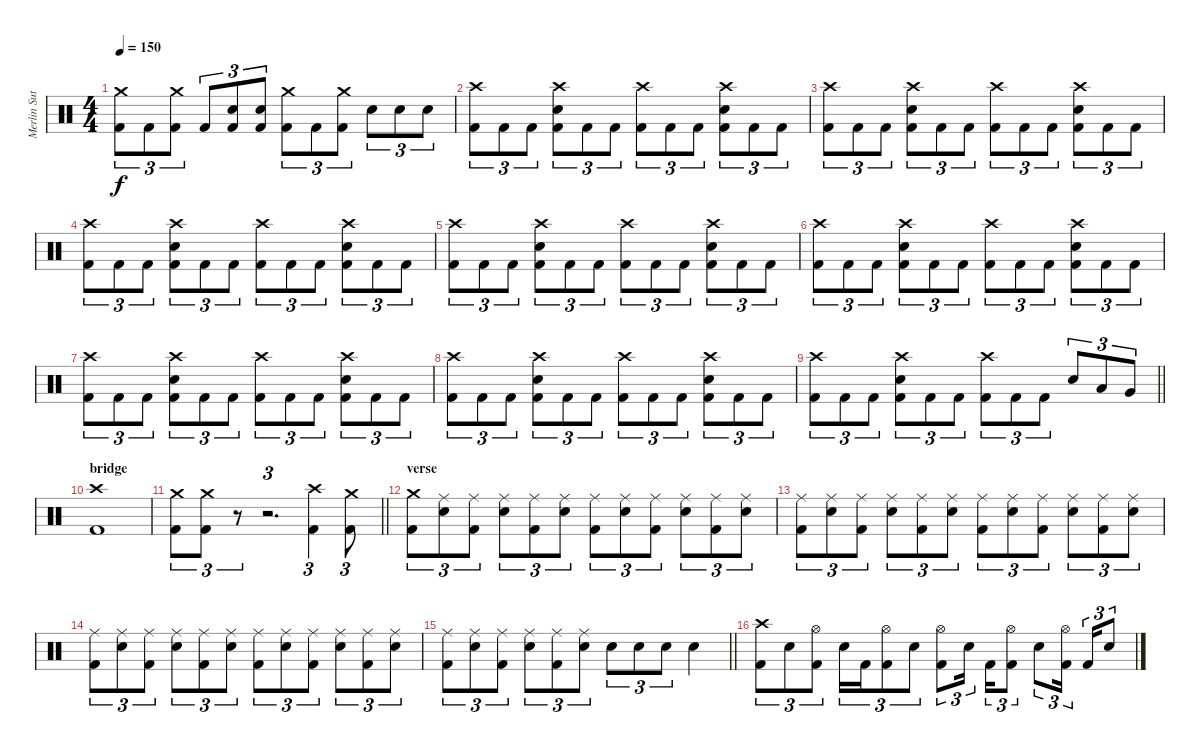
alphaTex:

\track ("Merlin Sutter" "Merlin Sut") {instrument percussion}
\staff {score}
\articulation defaults
\ts (4 4)
\tempo 150
\clef neutral
\ks c
("Crash medium (hit)" "Kick (hit) 2").8{tu (3 2) dy f} "Kick (hit) 2".8{tu (3 2)} ("Crash medium (hit)" "Kick (hit) 2").8{tu (3 2)} "Kick (hit) 2".8{tu (3 2)} ("Snare (hit) 2" "Kick (hit) 2").8{tu (3 2)} ("Snare (hit) 2" "Kick (hit) 2").8{tu (3 2)} ("Crash medium (hit)" "Kick (hit) 2").8{tu (3 2)} "Kick (hit) 2".8{tu (3 2)} ("Crash medium (hit)" "Kick (hit) 2").8{tu (3 2)} "Snare (hit) 2".8{tu (3 2)} "Snare (hit) 2".8{tu (3 2)} "Snare (hit) 2".8{tu (3 2)} |
("Crash high (hit)" "Kick (hit) 2").8{tu (3 2)} "Kick (hit) 2".8{tu (3 2)} "Kick (hit) 2".8{tu (3 2)} ("Crash high (hit)" "Snare (hit) 2" "Kick (hit) 2").8{tu (3 2)} "Kick (hit) 2".8{tu (3 2)} "Kick (hit) 2".8{tu (3 2)} ("Crash high (hit)" "Kick (hit) 2").8{tu (3 2)} "Kick (hit) 2".8{tu (3 2)} "Kick (hit) 2".8{tu (3 2)} ("Crash high (hit)" "Snare (hit) 2" "Kick (hit) 2").8{tu (3 2)} "Kick (hit) 2".8{tu (3 2)} "Kick (hit) 2".8{tu (3 2)} |
("Crash high (hit)" "Kick (hit) 2").8{tu (3 2)} "Kick (hit) 2".8{tu (3 2)} "Kick (hit) 2".8{tu (3 2)} ("Crash high (hit)" "Snare (hit) 2" "Kick (hit) 2").8{tu (3 2)} "Kick (hit) 2".8{tu (3 2)} "Kick (hit) 2".8{tu (3 2)} ("Crash high (hit)" "Kick (hit) 2").8{tu (3 2)} "Kick (hit) 2".8{tu (3 2)} "Kick (hit) 2".8{tu (3 2)} ("Crash high (hit)" "Snare (hit) 2" "Kick (hit) 2").8{tu (3 2)} "Kick (hit) 2".8{tu (3 2)} "Kick (hit) 2".8{tu (3 2)} |
("Crash high (hit)" "Kick (hit) 2").8{tu (3 2)} "Kick (hit) 2".8{tu (3 2)} "Kick (hit) 2".8{tu (3 2)} ("Crash high (hit)" "Snare (hit) 2" "Kick (hit) 2").8{tu (3 2)} "Kick (hit) 2".8{tu (3 2)} "Kick (hit) 2".8{tu (3 2)} ("Crash high (hit)" "Kick (hit) 2").8{tu (3 2)} "Kick (hit) 2".8{tu (3 2)} "Kick (hit) 2".8{tu (3 2)} ("Crash high (hit)" "Snare (hit) 2" "Kick (hit) 2").8{tu (3 2)} "Kick (hit) 2".8{tu (3 2)} "Kick (hit) 2".8{tu (3 2)} |
("Crash high (hit)" "Kick (hit) 2").8{tu (3 2)} "Kick (hit) 2".8{tu (3 2)} "Kick (hit) 2".8{tu (3 2)} ("Crash high (hit)" "Snare (hit) 2" "Kick (hit) 2").8{tu (3 2)} "Kick (hit) 2".8{tu (3 2)} "Kick (hit) 2".8{tu (3 2)} ("Crash high (hit)" "Kick (hit) 2").8{tu (3 2)} "Kick (hit) 2".8{tu (3 2)} "Kick (hit) 2".8{tu (3 2)} ("Crash high (hit)" "Snare (hit) 2" "Kick (hit) 2").8{tu (3 2)} "Kick (hit) 2".8{tu (3 2)} "Kick (hit) 2".8{tu (3 2)} |
("Crash high (hit)" "Kick (hit) 2").8{tu (3 2)} "Kick (hit) 2".8{tu (3 2)} "Kick (hit) 2".8{tu (3 2)} ("Crash high (hit)" "Snare (hit) 2" "Kick (hit) 2").8{tu (3 2)} "Kick (hit) 2".8{tu (3 2)} "Kick (hit) 2".8{tu (3 2)} ("Crash high (hit)" "Kick (hit) 2").8{tu (3 2)} "Kick (hit) 2".8{tu (3 2)} "Kick (hit) 2".8{tu (3 2)} ("Crash high (hit)" "Snare (hit) 2" "Kick (hit) 2").8{tu (3 2)} "Kick (hit) 2".8{tu (3 2)} "Kick (hit) 2".8{tu (3 2)} |
("Crash high (hit)" "Kick (hit) 2").8{tu (3 2)} "Kick (hit) 2".8{tu (3 2)} "Kick (hit) 2".8{tu (3 2)} ("Crash high (hit)" "Snare (hit) 2" "Kick (hit) 2").8{tu (3 2)} "Kick (hit) 2".8{tu (3 2)} "Kick (hit) 2".8{tu (3 2)} ("Crash high (hit)" "Kick (hit) 2").8{tu (3 2)} "Kick (hit) 2".8{tu (3 2)} "Kick (hit) 2".8{tu (3 2)} ("Crash high (hit)" "Snare (hit) 2" "Kick (hit) 2").8{tu (3 2)} "Kick (hit) 2".8{tu (3 2)} "Kick (hit) 2".8{tu (3 2)} |
("Crash high (hit)" "Kick (hit) 2").8{tu (3 2)} "Kick (hit) 2".8{tu (3 2)} "Kick (hit) 2".8{tu (3 2)} ("Crash high (hit)" "Snare (hit) 2" "Kick (hit) 2").8{tu (3 2)} "Kick (hit) 2".8{tu (3 2)} "Kick (hit) 2".8{tu (3 2)} ("Crash high (hit)" "Kick (hit) 2").8{tu (3 2)} "Kick (hit) 2".8{tu (3 2)} "Kick (hit) 2".8{tu (3 2)} ("Crash high (hit)" "Snare (hit) 2" "Kick (hit) 2").8{tu (3 2)} "Kick (hit) 2".8{tu (3 2)} "Kick (hit) 2".8{tu (3 2)} |
\barLineRight lightlight
("Crash high (hit)" "Kick (hit) 2").8{tu (3 2)} "Kick (hit) 2".8{tu (3 2)} "Kick (hit) 2".8{tu (3 2)} ("Crash high (hit)" "Snare (hit) 2" "Kick (hit) 2").8{tu (3 2)} "Kick (hit) 2".8{tu (3 2)} "Kick (hit) 2".8{tu (3 2)} ("Crash high (hit)" "Kick (hit) 2").8{tu (3 2)} "Kick (hit) 2".8{tu (3 2)} "Kick (hit) 2".8{tu (3 2)} "Snare (hit) 2".8{tu (3 2)} "Low Tom (hit)".8{tu (3 2)} "Very Low Tom (hit)".8{tu (3 2)} |
\section ("" "bridge")
("Crash high (hit)" "Kick (hit) 2").1 |
\barLineRight lightlight
("Crash medium (hit)" "Kick (hit) 2").8{tu (3 2)} ("Crash medium (hit)" "Kick (hit) 2").8{tu (3 2)} r.8{tu (3 2) volume 0} r.2{d tu (3 2)} ("Crash high (hit)" "Kick (hit) 2").4{tu (3 2) volume 16} ("Crash medium (hit)" "Kick (hit) 2").8{tu (3 2)} |
\section ("" "verse")
("Crash medium (hit)" "Kick (hit) 2").8{tu (3 2)} ("Ride (middle)" "Snare (hit) 2").8{tu (3 2)} ("Ride (middle)" "Kick (hit) 2").8{tu (3 2)} ("Ride (middle)" "Snare (hit) 2").8{tu (3 2)} ("Ride (middle)" "Kick (hit) 2").8{tu (3 2)} ("Ride (middle)" "Snare (hit) 2").8{tu (3 2)} ("Ride (middle)" "Kick (hit) 2").8{tu (3 2)} ("Ride (middle)" "Snare (hit) 2").8{tu (3 2)} ("Ride (middle)" "Kick (hit) 2").8{tu (3 2)} ("Ride (middle)" "Snare (hit) 2").8{tu (3 2)} ("Ride (middle)" "Kick (hit) 2").8{tu (3 2)} ("Ride (middle)" "Snare (hit) 2").8{tu (3 2)} |
("Ride (middle)" "Kick (hit) 2").8{tu (3 2)} ("Ride (middle)" "Snare (hit) 2").8{tu (3 2)} ("Ride (middle)" "Kick (hit) 2").8{tu (3 2)} ("Ride (middle)" "Snare (hit) 2").8{tu (3 2)} ("Ride (middle)" "Kick (hit) 2").8{tu (3 2)} ("Ride (middle)" "Snare (hit) 2").8{tu (3 2)} ("Ride (middle)" "Kick (hit) 2").8{tu (3 2)} ("Ride (middle)" "Snare (hit) 2").8{tu (3 2)} ("Ride (middle)" "Kick (hit) 2").8{tu (3 2)} ("Ride (middle)" "Snare (hit) 2").8{tu (3 2)} ("Ride (middle)" "Kick (hit) 2").8{tu (3 2)} ("Ride (middle)" "Snare (hit) 2").8{tu (3 2)} |
("Ride (middle)" "Kick (hit) 2").8{tu (3 2)} ("Ride (middle)" "Snare (hit) 2").8{tu (3 2)} ("Ride (middle)" "Kick (hit) 2").8{tu (3 2)} ("Ride (middle)" "Snare (hit) 2").8{tu (3 2)} ("Ride (middle)" "Kick (hit) 2").8{tu (3 2)} ("Ride (middle)" "Snare (hit) 2").8{tu (3 2)} ("Ride (middle)" "Kick (hit) 2").8{tu (3 2)} ("Ride (middle)" "Snare (hit) 2").8{tu (3 2)} ("Ride (middle)" "Kick (hit) 2").8{tu (3 2)} ("Ride (middle)" "Snare (hit) 2").8{tu (3 2)} ("Ride (middle)" "Kick (hit) 2").8{tu (3 2)} ("Ride (middle)" "Snare (hit) 2").8{tu (3 2)} |
\barLineRight lightlight
("Ride (middle)" "Kick (hit) 2").8{tu (3 2)} ("Ride (middle)" "Snare (hit) 2").8{tu (3 2)} ("Ride (middle)" "Kick (hit) 2").8{tu (3 2)} ("Ride (middle)" "Snare (hit) 2").8{tu (3 2)} ("Ride (middle)" "Kick (hit) 2").8{tu (3 2)} ("Ride (middle)" "Snare (hit) 2").8{tu (3 2)} "Snare (hit) 2".8{tu (3 2)} "Snare (hit) 2".8{tu (3 2)} "Snare (hit) 2".8{tu (3 2)} "Snare (hit) 2".4 |
\section ("" "")
("Crash high (hit)" "Kick (hit) 2").8{tu (3 2)} "Snare (hit) 2".8{tu (3 2)} ("Hi-Hat (open)" "Kick (hit) 2").8{tu (3 2)} "Snare (hit) 2".16{tu (3 2)} "Kick (hit) 2".16{tu (3 2)} ("Hi-Hat (open)" "Kick (hit) 2").8{tu (3 2)} "Snare (hit) 2".8{tu (3 2)} ("Hi-Hat (open)" "Kick (hit) 2").8{tu (3 2)} "Snare (hit) 2".16{tu (3 2) beam splitsecondary} "Kick (hit) 2".16{tu (3 2)} ("Hi-Hat (open)" "Kick (hit) 2").8{tu (3 2)} "Snare (hit) 2".8{tu (3 2)} ("Hi-Hat (open)" "Kick (hit) 2").16{tu (3 2) beam splitsecondary} "Kick (hit) 2".16{tu (3 2)} "Snare (hit) 2".8{tu (3 2)}
